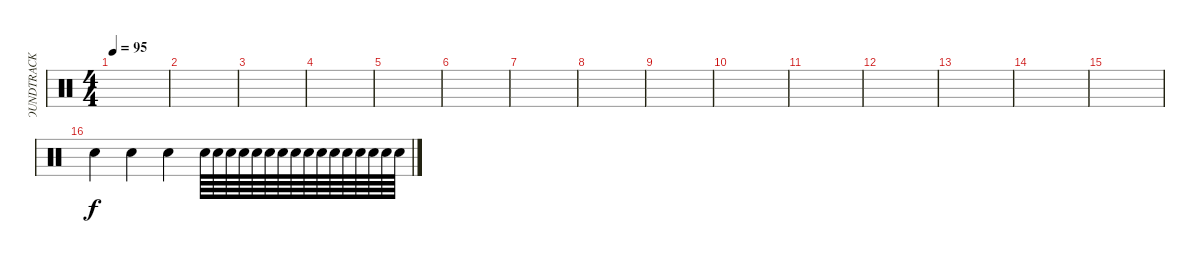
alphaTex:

\track ("SOUNDTRACK" "SOUNDTRACK") {instrument percussion}
\staff {score}
\articulation defaults
\ts (4 4)
\tempo 95
\clef neutral
\ks c
|
|
|
|
|
|
|
|
|
|
|
|
|
|
|
"Snare (hit)"{x}.4 "Snare (hit)"{x}.4 "Snare (hit)"{x}.4 "Snare (hit) 2".64{volume 16} "Snare (hit) 2".64 "Snare (hit)"{x}.64{volume 14} "Snare (hit)"{x}.64 "Snare (hit)"{x}.64 "Snare (hit)"{x}.64 "Snare (hit)"{x}.64 "Snare (hit)"{x}.64 "Snare (hit)"{x}.64 "Snare (hit)"{x}.64 "Snare (hit)"{x}.64 "Snare (hit)"{x}.64 "Snare (hit)"{x}.64 "Snare (hit)"{x}.64 "Snare (hit)"{x}.64 "Snare (hit)"{x}.64
